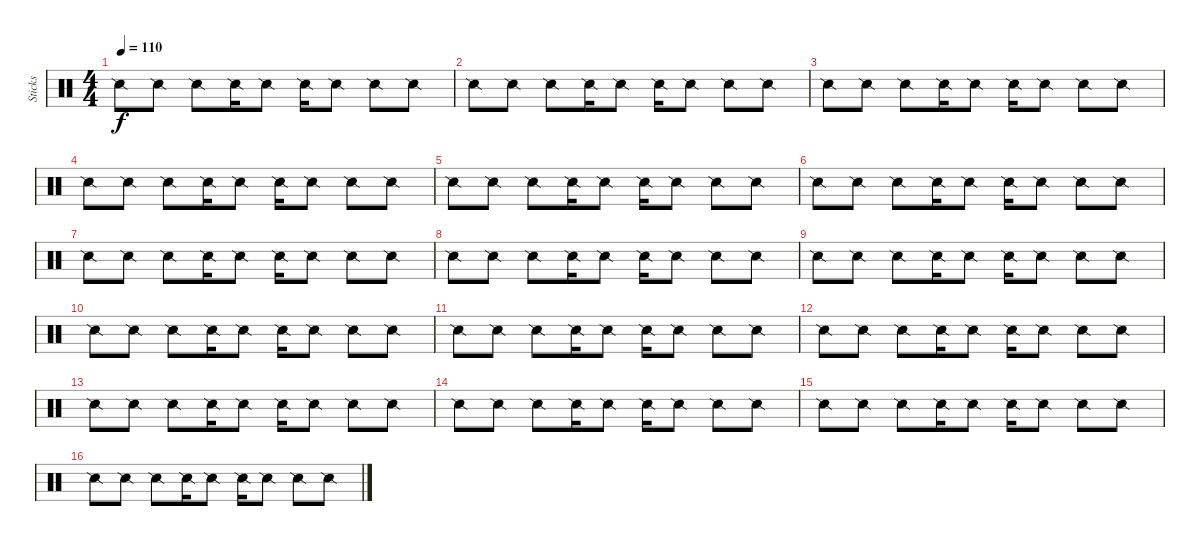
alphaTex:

\track ("Sticks" "Sticks") {instrument percussion}
\staff {score}
\articulation defaults
\ts (4 4)
\tempo 110
\clef neutral
\ks c "Snare (side stick) 2".8{dy f} "Snare (side stick) 2".8 "Snare (side stick) 2".8 "Snare (side stick) 2".16 "Snare (side stick) 2".8 "Snare (side stick) 2".16 "Snare (side stick) 2".8 "Snare (side stick) 2".8 "Snare (side stick) 2".8
|
"Snare (side stick) 2".8 "Snare (side stick) 2".8 "Snare (side stick) 2".8 "Snare (side stick) 2".16 "Snare (side stick) 2".8 "Snare (side stick) 2".16 "Snare (side stick) 2".8 "Snare (side stick) 2".8 "Snare (side stick) 2".8 |
"Snare (side stick) 2".8 "Snare (side stick) 2".8 "Snare (side stick) 2".8 "Snare (side stick) 2".16 "Snare (side stick) 2".8 "Snare (side stick) 2".16 "Snare (side stick) 2".8 "Snare (side stick) 2".8 "Snare (side stick) 2".8 |
"Snare (side stick) 2".8 "Snare (side stick) 2".8 "Snare (side stick) 2".8 "Snare (side stick) 2".16 "Snare (side stick) 2".8 "Snare (side stick) 2".16 "Snare (side stick) 2".8 "Snare (side stick) 2".8 "Snare (side stick) 2".8 |
"Snare (side stick) 2".8 "Snare (side stick) 2".8 "Snare (side stick) 2".8 "Snare (side stick) 2".16 "Snare (side stick) 2".8 "Snare (side stick) 2".16 "Snare (side stick) 2".8 "Snare (side stick) 2".8 "Snare (side stick) 2".8 |
"Snare (side stick) 2".8 "Snare (side stick) 2".8 "Snare (side stick) 2".8 "Snare (side stick) 2".16 "Snare (side stick) 2".8 "Snare (side stick) 2".16 "Snare (side stick) 2".8 "Snare (side stick) 2".8 "Snare (side stick) 2".8 |
"Snare (side stick) 2".8 "Snare (side stick) 2".8 "Snare (side stick) 2".8 "Snare (side stick) 2".16 "Snare (side stick) 2".8 "Snare (side stick) 2".16 "Snare (side stick) 2".8 "Snare (side stick) 2".8 "Snare (side stick) 2".8 |
"Snare (side stick) 2".8 "Snare (side stick) 2".8 "Snare (side stick) 2".8 "Snare (side stick) 2".16 "Snare (side stick) 2".8 "Snare (side stick) 2".16 "Snare (side stick) 2".8 "Snare (side stick) 2".8 "Snare (side stick) 2".8 |
"Snare (side stick) 2".8 "Snare (side stick) 2".8 "Snare (side stick) 2".8 "Snare (side stick) 2".16 "Snare (side stick) 2".8 "Snare (side stick) 2".16 "Snare (side stick) 2".8 "Snare (side stick) 2".8 "Snare (side stick) 2".8 |
"Snare (side stick) 2".8 "Snare (side stick) 2".8 "Snare (side stick) 2".8 "Snare (side stick) 2".16 "Snare (side stick) 2".8 "Snare (side stick) 2".16 "Snare (side stick) 2".8 "Snare (side stick) 2".8 "Snare (side stick) 2".8 |
"Snare (side stick) 2".8 "Snare (side stick) 2".8 "Snare (side stick) 2".8 "Snare (side stick) 2".16 "Snare (side stick) 2".8 "Snare (side stick) 2".16 "Snare (side stick) 2".8 "Snare (side stick) 2".8 "Snare (side stick) 2".8 |
"Snare (side stick) 2".8 "Snare (side stick) 2".8 "Snare (side stick) 2".8 "Snare (side stick) 2".16 "Snare (side stick) 2".8 "Snare (side stick) 2".16 "Snare (side stick) 2".8 "Snare (side stick) 2".8 "Snare (side stick) 2".8 |
"Snare (side stick) 2".8 "Snare (side stick) 2".8 "Snare (side stick) 2".8 "Snare (side stick) 2".16 "Snare (side stick) 2".8 "Snare (side stick) 2".16 "Snare (side stick) 2".8 "Snare (side stick) 2".8 "Snare (side stick) 2".8 |
"Snare (side stick) 2".8 "Snare (side stick) 2".8 "Snare (side stick) 2".8 "Snare (side stick) 2".16 "Snare (side stick) 2".8 "Snare (side stick) 2".16 "Snare (side stick) 2".8 "Snare (side stick) 2".8 "Snare (side stick) 2".8 |
"Snare (side stick) 2".8 "Snare (side stick) 2".8 "Snare (side stick) 2".8 "Snare (side stick) 2".16 "Snare (side stick) 2".8 "Snare (side stick) 2".16 "Snare (side stick) 2".8 "Snare (side stick) 2".8 "Snare (side stick) 2".8 |
"Snare (side stick) 2".8 "Snare (side stick) 2".8 "Snare (side stick) 2".8 "Snare (side stick) 2".16 "Snare (side stick) 2".8 "Snare (side stick) 2".16 "Snare (side stick) 2".8 "Snare (side stick) 2".8 "Snare (side stick) 2".8
